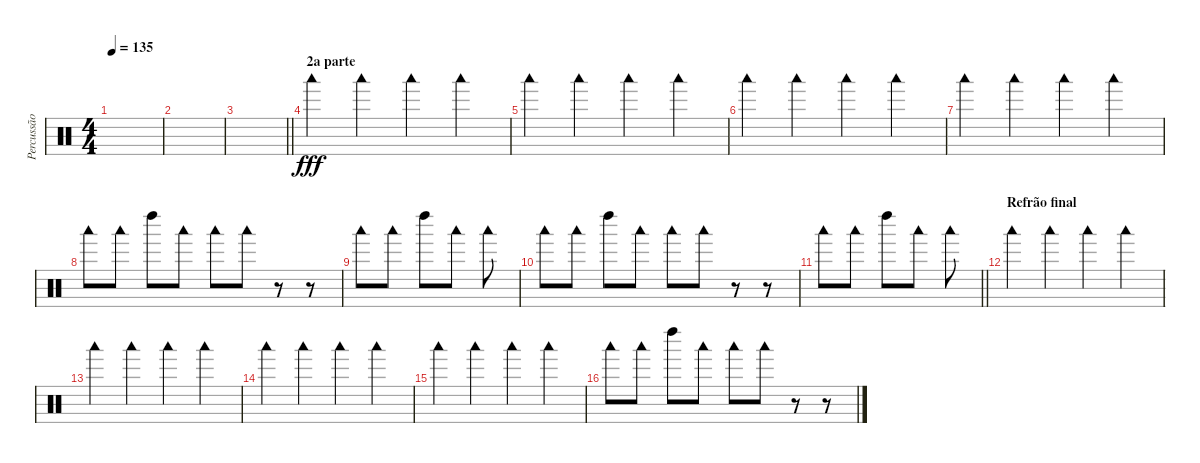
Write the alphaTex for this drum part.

\track ("Percussão" "Percussão") {instrument percussion}
\staff {score}
\articulation defaults
\ts (4 4)
\tempo 135
\clef neutral
\ks c
|
|
\barLineRight lightlight
|
\section ("" "2a parte")
"Woodblock low (hit)".4{dy fff} "Woodblock low (hit)".4 "Woodblock low (hit)".4 "Woodblock low (hit)".4 |
"Woodblock low (hit)".4 "Woodblock low (hit)".4 "Woodblock low (hit)".4 "Woodblock low (hit)".4 |
"Woodblock low (hit)".4 "Woodblock low (hit)".4 "Woodblock low (hit)".4 "Woodblock low (hit)".4 |
"Woodblock low (hit)".4 "Woodblock low (hit)".4 "Woodblock low (hit)".4 "Woodblock low (hit)".4 |
"Woodblock low (hit)".8 "Woodblock low (hit)".8 "Left Maraca (hit)".8 "Woodblock low (hit)".8 "Woodblock low (hit)".8 "Woodblock low (hit)".8 r.8 r.8 |
"Woodblock low (hit)".8 "Woodblock low (hit)".8 "Left Maraca (hit)".8 "Woodblock low (hit)".8 "Woodblock low (hit)".8 |
"Woodblock low (hit)".8 "Woodblock low (hit)".8 "Left Maraca (hit)".8 "Woodblock low (hit)".8 "Woodblock low (hit)".8 "Woodblock low (hit)".8 r.8 r.8 |
\barLineRight lightlight "Woodblock low (hit)".8 "Woodblock low (hit)".8 "Left Maraca (hit)".8 "Woodblock low (hit)".8 "Woodblock low (hit)".8
|
\section ("" "Refrão final")
"Woodblock low (hit)".4 "Woodblock low (hit)".4 "Woodblock low (hit)".4 "Woodblock low (hit)".4 |
"Woodblock low (hit)".4 "Woodblock low (hit)".4 "Woodblock low (hit)".4 "Woodblock low (hit)".4 |
"Woodblock low (hit)".4 "Woodblock low (hit)".4 "Woodblock low (hit)".4 "Woodblock low (hit)".4 |
"Woodblock low (hit)".4 "Woodblock low (hit)".4 "Woodblock low (hit)".4 "Woodblock low (hit)".4 |
"Woodblock low (hit)".8 "Woodblock low (hit)".8 "Left Maraca (hit)".8 "Woodblock low (hit)".8 "Woodblock low (hit)".8 "Woodblock low (hit)".8 r.8 r.8
